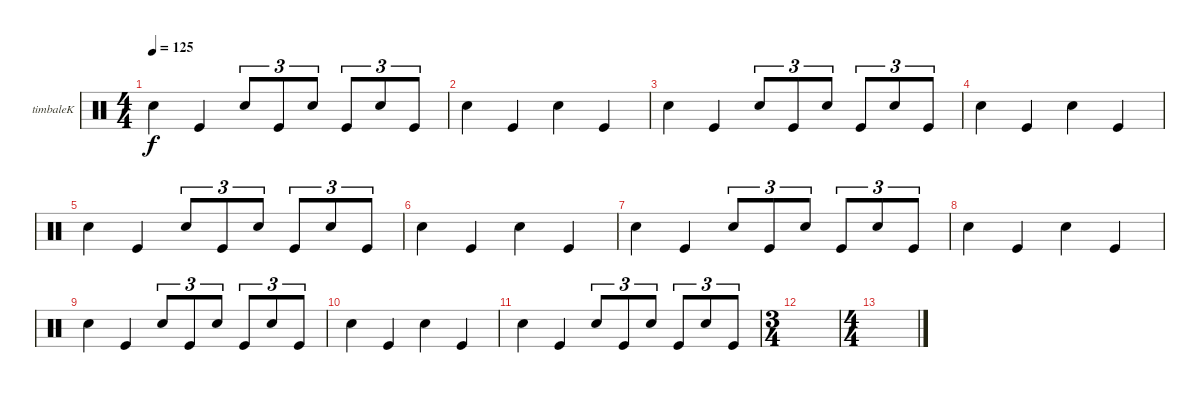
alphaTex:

\defaultSystemsLayout 4
\bracketExtendMode groupsimilarinstruments
\firstSystemTrackNameOrientation horizontal
\otherSystemsTrackNameOrientation horizontal
\track ("Timbale" "timbaleK") {instrument percussion}
\staff {score}
\articulation defaults
\ts (4 4)
\tempo 125
\clef neutral
\scale
0.333333
\ks c "Snare (hit) 2".4{dy f} "Kick (hit)".4 "Snare (hit) 2".8{tu (3 2)} "Kick (hit)".8{tu (3 2)} "Snare (hit) 2".8{tu (3 2)} "Kick (hit)".8{tu (3 2)} "Snare (hit) 2".8{tu (3 2)} "Kick (hit)".8{tu (3 2)}
|
\scale
0.333333 "Snare (hit) 2".4 "Kick (hit)".4 "Snare (hit) 2".4 "Kick (hit)".4 |
\scale
0.333333 "Snare (hit) 2".4 "Kick (hit)".4 "Snare (hit) 2".8{tu (3 2)} "Kick (hit)".8{tu (3 2)} "Snare (hit) 2".8{tu (3 2)} "Kick (hit)".8{tu (3 2)} "Snare (hit) 2".8{tu (3 2)} "Kick (hit)".8{tu (3 2)} |
\scale
0.333333 "Snare (hit) 2".4 "Kick (hit)".4 "Snare (hit) 2".4 "Kick (hit)".4 |
\scale
0.333333 "Snare (hit) 2".4 "Kick (hit)".4 "Snare (hit) 2".8{tu (3 2)} "Kick (hit)".8{tu (3 2)} "Snare (hit) 2".8{tu (3 2)} "Kick (hit)".8{tu (3 2)} "Snare (hit) 2".8{tu (3 2)} "Kick (hit)".8{tu (3 2)} |
\scale
0.333333 "Snare (hit) 2".4 "Kick (hit)".4 "Snare (hit) 2".4 "Kick (hit)".4 |
\scale
0.333333 "Snare (hit) 2".4 "Kick (hit)".4 "Snare (hit) 2".8{tu (3 2)} "Kick (hit)".8{tu (3 2)} "Snare (hit) 2".8{tu (3 2)} "Kick (hit)".8{tu (3 2)} "Snare (hit) 2".8{tu (3 2)} "Kick (hit)".8{tu (3 2)} |
\scale
0.333333 "Snare (hit) 2".4 "Kick (hit)".4 "Snare (hit) 2".4 "Kick (hit)".4 |
\scale
0.333333 "Snare (hit) 2".4 "Kick (hit)".4 "Snare (hit) 2".8{tu (3 2)} "Kick (hit)".8{tu (3 2)} "Snare (hit) 2".8{tu (3 2)} "Kick (hit)".8{tu (3 2)} "Snare (hit) 2".8{tu (3 2)} "Kick (hit)".8{tu (3 2)} |
\scale
0.262911 "Snare (hit) 2".4 "Kick (hit)".4 "Snare (hit) 2".4 "Kick (hit)".4 |
\scale
0.262911 "Snare (hit) 2".4 "Kick (hit)".4 "Snare (hit) 2".8{tu (3 2)} "Kick (hit)".8{tu (3 2)} "Snare (hit) 2".8{tu (3 2)} "Kick (hit)".8{tu (3 2)} "Snare (hit) 2".8{tu (3 2)} "Kick (hit)".8{tu (3 2)} |
\ts (3 4)
\scale
0.474178 |
\ts (4 4)
\scale
0.474178 |
\scale
0.262911 |
\scale
0.262911 |
\scale
0.333333
